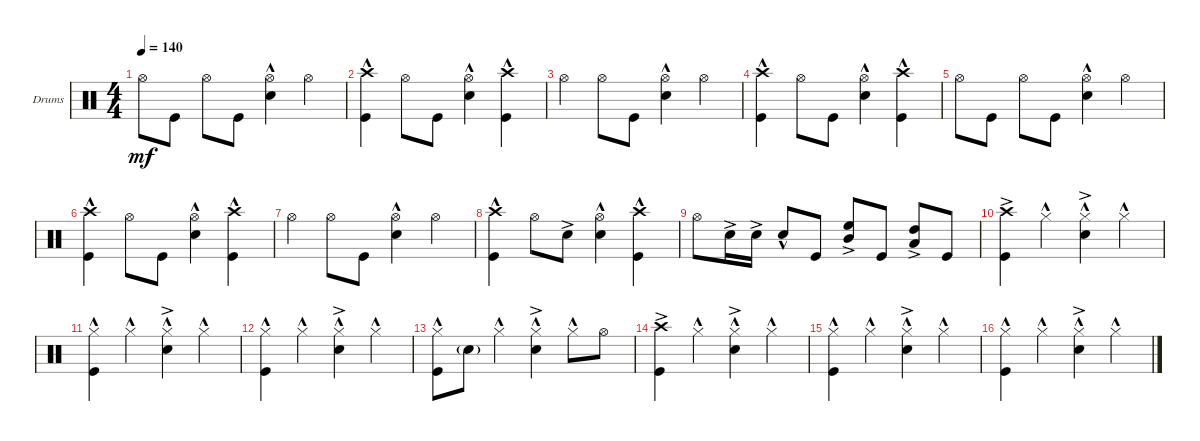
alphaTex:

\bracketExtendMode groupsimilarinstruments
\firstSystemTrackNameOrientation horizontal
\otherSystemsTrackNameOrientation horizontal
\track ("Drumkit" "Drums") {instrument percussion}
\staff {score}
\articulation defaults
\ts (4 4)
\tempo 140
\clef neutral
\ks c "Hi-Hat (open)".8{dy mf} "Kick (hit)".8 "Hi-Hat (open)".8 "Kick (hit)".8
("Hi-Hat (open)" "Snare (hit) 2"{hac}).4 "Hi-Hat (open)".4 |
("Kick (hit)" "Crash high (hit)"{hac}).4 "Hi-Hat (open)".8 "Kick (hit)".8 ("Hi-Hat (open)" "Snare (hit) 2"{hac}).4 ("Kick (hit)" "Crash high (hit)"{hac}).4 |
"Hi-Hat (open)".4 "Hi-Hat (open)".8 "Kick (hit)".8 ("Hi-Hat (open)" "Snare (hit) 2"{hac}).4 "Hi-Hat (open)".4 |
("Kick (hit)" "Crash high (hit)"{hac}).4 "Hi-Hat (open)".8 "Kick (hit)".8 ("Hi-Hat (open)" "Snare (hit) 2"{hac}).4 ("Kick (hit)" "Crash high (hit)"{hac}).4 |
"Hi-Hat (open)".8 "Kick (hit)".8 "Hi-Hat (open)".8 "Kick (hit)".8 ("Hi-Hat (open)" "Snare (hit) 2"{hac}).4 "Hi-Hat (open)".4 |
("Kick (hit)" "Crash high (hit)"{hac}).4 "Hi-Hat (open)".8 "Kick (hit)".8 ("Hi-Hat (open)" "Snare (hit) 2"{hac}).4 ("Kick (hit)" "Crash high (hit)"{hac}).4 |
"Hi-Hat (open)".4 "Hi-Hat (open)".8 "Kick (hit)".8 ("Hi-Hat (open)" "Snare (hit) 2"{hac}).4 "Hi-Hat (open)".4 |
("Kick (hit)" "Crash high (hit)"{hac}).4 "Hi-Hat (open)".8 "Snare (hit) 2"{ac}.8 ("Hi-Hat (open)" "Snare (hit) 2"{hac}).4 ("Kick (hit)" "Crash high (hit)"{hac}).4 |
"Hi-Hat (open)".8 "Snare (hit) 2"{ac}.16 "Snare (hit) 2"{ac}.16 "Snare (hit) 2"{hac}.8 "Kick (hit)".8 ("High Floor Tom (hit)"{ac} "Mid Tom (hit)"{ac}).8 "Kick (hit)".8 ("High Tom (hit)"{ac} "Low Tom (hit)"{ac}).8 "Kick (hit)".8 |
("Kick (hit)" "Crash high (hit)"{ac}).4 "Hi-Hat (closed)"{hac}.4 ("Hi-Hat (closed)"{hac} "Snare (hit) 2"{ac}).4 "Hi-Hat (closed)"{hac}.4 |
("Kick (hit)" "Hi-Hat (closed)"{hac}).4 "Hi-Hat (closed)"{hac}.4 ("Hi-Hat (closed)"{hac} "Snare (hit) 2"{ac}).4 "Hi-Hat (closed)"{hac}.4 |
("Kick (hit)" "Hi-Hat (closed)"{hac}).4 "Hi-Hat (closed)"{hac}.4 ("Hi-Hat (closed)"{hac} "Snare (hit) 2"{ac}).4 "Hi-Hat (closed)"{hac}.4 |
("Kick (hit)" "Hi-Hat (closed)"{hac}).8 "Snare (hit) 2"{g}.8 "Hi-Hat (closed)"{hac}.4 ("Hi-Hat (closed)"{hac} "Snare (hit) 2"{ac}).4 "Hi-Hat (closed)"{hac}.8 "Hi-Hat (open)".8 |
("Kick (hit)" "Crash high (hit)"{ac}).4 "Hi-Hat (closed)"{hac}.4 ("Hi-Hat (closed)"{hac} "Snare (hit) 2"{ac}).4 "Hi-Hat (closed)"{hac}.4 |
("Kick (hit)" "Hi-Hat (closed)"{hac}).4 "Hi-Hat (closed)"{hac}.4 ("Hi-Hat (closed)"{hac} "Snare (hit) 2"{ac}).4 "Hi-Hat (closed)"{hac}.4 |
("Kick (hit)" "Hi-Hat (closed)"{hac}).4 "Hi-Hat (closed)"{hac}.4 ("Hi-Hat (closed)"{hac} "Snare (hit) 2"{ac}).4 "Hi-Hat (closed)"{hac}.4
